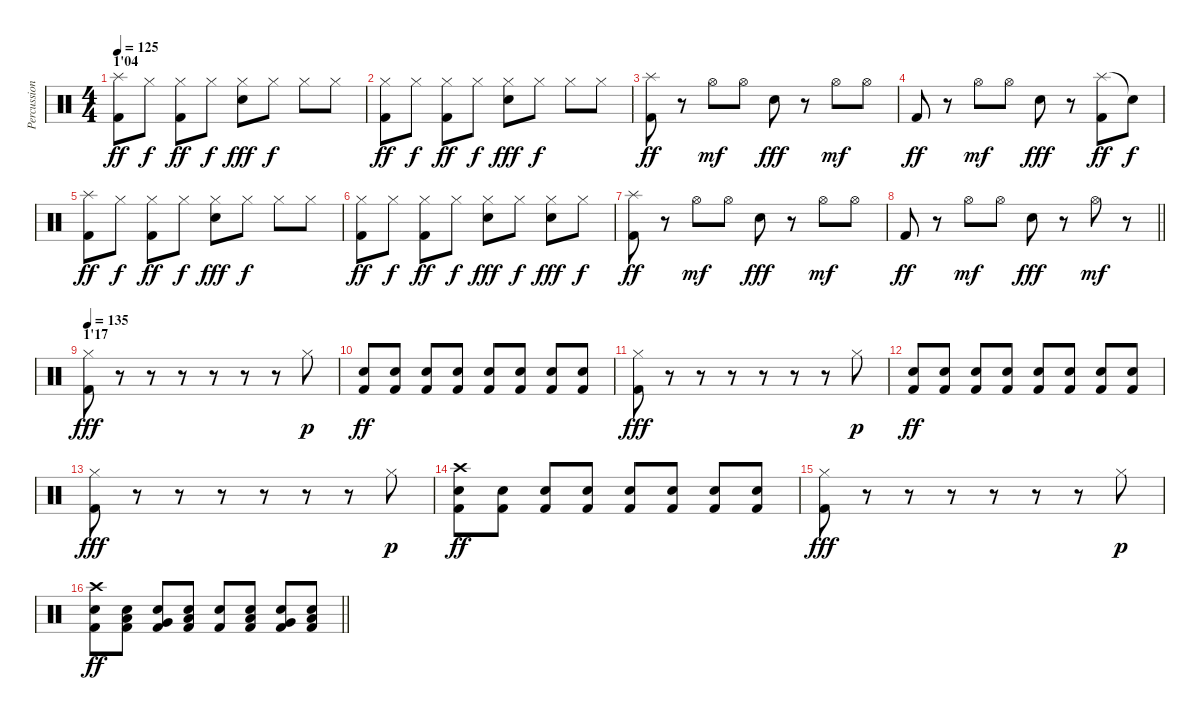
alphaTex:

\track ("Percussions" "Percussion") {instrument percussion}
\staff {score}
\articulation defaults
\ts (4 4)
\section ("" "1'04")
\tempo 125
\clef neutral
\ks c
("Splash (hit)" "Kick (hit) 2").8{dy ff} "Hi-Hat (closed)".8{dy f} ("Hi-Hat (closed)" "Kick (hit) 2").8{dy ff} "Hi-Hat (closed)".8{dy f} ("Hi-Hat (closed)" "Snare (hit) 2").8{dy fff} "Hi-Hat (closed)".8{dy f} "Hi-Hat (closed)".8 "Hi-Hat (closed)".8 |
("Hi-Hat (closed)" "Kick (hit) 2").8{dy ff} "Hi-Hat (closed)".8{dy f} ("Hi-Hat (closed)" "Kick (hit) 2").8{dy ff} "Hi-Hat (closed)".8{dy f} ("Hi-Hat (closed)" "Snare (hit) 2").8{dy fff} "Hi-Hat (closed)".8{dy f} "Hi-Hat (closed)".8 "Hi-Hat (closed)".8 |
("Splash (hit)" "Kick (hit) 2").8{dy ff} r.8 "Hi-Hat (open)".8{dy mf} "Hi-Hat (open)".8 "Snare (hit) 2".8{dy fff} r.8 "Hi-Hat (open)".8{dy mf} "Hi-Hat (open)".8 |
"Kick (hit) 2".8{dy ff} r.8 "Hi-Hat (open)".8{dy mf} "Hi-Hat (open)".8 "Snare (hit) 2".8{dy fff} r.8 ("Splash (hit)" "Kick (hit) 2").8{dy ff} "Snare (hit)"{t}.8{dy f} |
("Splash (hit)" "Kick (hit) 2").8{dy ff} "Hi-Hat (closed)".8{dy f} ("Hi-Hat (closed)" "Kick (hit) 2").8{dy ff} "Hi-Hat (closed)".8{dy f} ("Hi-Hat (closed)" "Snare (hit) 2").8{dy fff} "Hi-Hat (closed)".8{dy f} "Hi-Hat (closed)".8 "Hi-Hat (closed)".8 |
("Hi-Hat (closed)" "Kick (hit) 2").8{dy ff} "Hi-Hat (closed)".8{dy f} ("Hi-Hat (closed)" "Kick (hit) 2").8{dy ff} "Hi-Hat (closed)".8{dy f} ("Hi-Hat (closed)" "Snare (hit) 2").8{dy fff} "Hi-Hat (closed)".8{dy f} ("Hi-Hat (closed)" "Snare (hit) 2").8{dy fff} "Hi-Hat (closed)".8{dy f} |
("Splash (hit)" "Kick (hit) 2").8{dy ff} r.8 "Hi-Hat (open)".8{dy mf} "Hi-Hat (open)".8 "Snare (hit) 2".8{dy fff} r.8 "Hi-Hat (open)".8{dy mf} "Hi-Hat (open)".8 |
\barLineRight lightlight "Kick (hit) 2".8{dy ff}
r.8 "Hi-Hat (open)".8{dy mf} "Hi-Hat (open)".8 "Snare (hit) 2".8{dy fff} r.8 "Hi-Hat (open)".8{dy mf} r.8 |
\section ("" "1'17")
\tempo 135
("Hi-Hat (closed)" "Kick (hit) 2").8{dy fff} r.8 r.8 r.8 r.8 r.8 r.8 "Hi-Hat (closed)".8{dy p} |
("Snare (hit) 2" "Kick (hit) 2").8{dy ff} ("Snare (hit) 2" "Kick (hit) 2").8 ("Snare (hit) 2" "Kick (hit) 2").8 ("Snare (hit) 2" "Kick (hit) 2").8 ("Snare (hit) 2" "Kick (hit) 2").8 ("Snare (hit) 2" "Kick (hit) 2").8 ("Snare (hit) 2" "Kick (hit) 2").8 ("Snare (hit) 2" "Kick (hit) 2").8 |
("Hi-Hat (closed)" "Kick (hit) 2").8{dy fff} r.8 r.8 r.8 r.8 r.8 r.8 "Hi-Hat (closed)".8{dy p} |
("Snare (hit) 2" "Kick (hit) 2").8{dy ff} ("Snare (hit) 2" "Kick (hit) 2").8 ("Snare (hit) 2" "Kick (hit) 2").8 ("Snare (hit) 2" "Kick (hit) 2").8 ("Snare (hit) 2" "Kick (hit) 2").8 ("Snare (hit) 2" "Kick (hit) 2").8 ("Snare (hit) 2" "Kick (hit) 2").8 ("Snare (hit) 2" "Kick (hit) 2").8 |
("Hi-Hat (closed)" "Kick (hit) 2").8{dy fff} r.8 r.8 r.8 r.8 r.8 r.8 "Hi-Hat (closed)".8{dy p} |
("Crash high (hit)" "Snare (hit) 2" "Kick (hit) 2").8{dy ff} ("Snare (hit) 2" "Kick (hit) 2").8 ("Snare (hit) 2" "Kick (hit) 2").8 ("Snare (hit) 2" "Kick (hit) 2").8 ("Snare (hit) 2" "Kick (hit) 2").8 ("Snare (hit) 2" "Kick (hit) 2").8 ("Snare (hit) 2" "Kick (hit) 2").8 ("Snare (hit) 2" "Kick (hit) 2").8 |
("Hi-Hat (closed)" "Kick (hit) 2").8{dy fff} r.8 r.8 r.8 r.8 r.8 r.8 "Hi-Hat (closed)".8{dy p} |
\barLineRight lightlight
("Crash high (hit)" "Snare (hit) 2" "Kick (hit) 2").8{dy ff} ("Snare (hit) 2" "Low Tom (hit)" "Kick (hit) 2").8 ("Snare (hit) 2" "Very Low Tom (hit)" "Kick (hit) 2").8 ("Snare (hit) 2" "Low Floor Tom (hit)" "Kick (hit) 2").8 ("Snare (hit) 2" "Kick (hit) 2").8 ("Snare (hit) 2" "Low Tom (hit)" "Kick (hit) 2").8 ("Snare (hit) 2" "Very Low Tom (hit)" "Kick (hit) 2").8 ("Snare (hit) 2" "Low Floor Tom (hit)" "Kick (hit) 2").8
